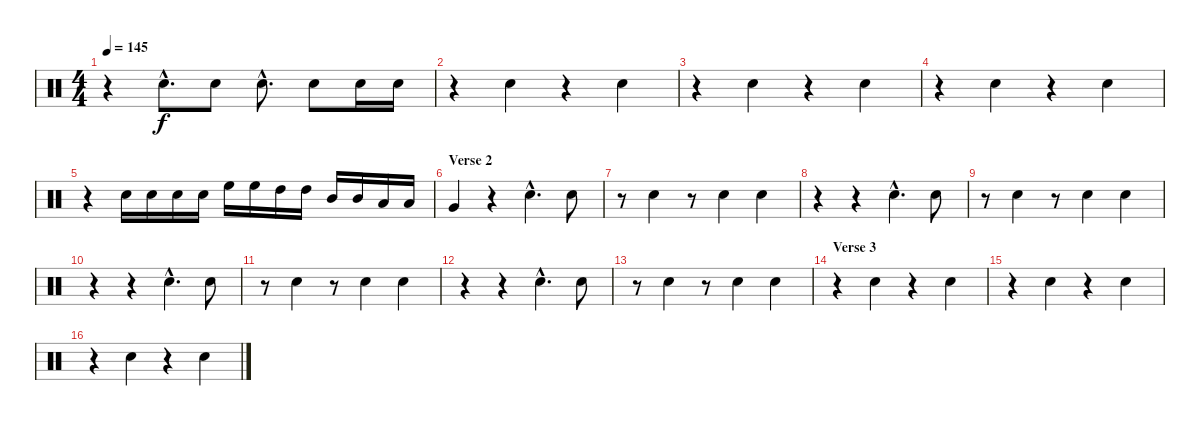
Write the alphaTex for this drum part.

\track "" {instrument percussion}
\staff {score}
\articulation defaults
\ts (4 4)
\tempo 145
\clef neutral
\ks c
r.4{dy f} "Electric Snare (hit)"{hac}.8{d} "Electric Snare (hit)".8 "Electric Snare (hit)"{hac}.8{d} "Electric Snare (hit)".8 "Electric Snare (hit)".16 "Electric Snare (hit)".16 |
r.4 "Electric Snare (hit)".4 r.4 "Electric Snare (hit)".4 |
r.4 "Electric Snare (hit)".4 r.4 "Electric Snare (hit)".4 |
r.4 "Electric Snare (hit)".4 r.4 "Electric Snare (hit)".4 |
r.4 "Electric Snare (hit)".16 "Electric Snare (hit)".16 "Electric Snare (hit)".16 "Electric Snare (hit)".16 "High Floor Tom (hit)".16 "High Floor Tom (hit)".16 "High Tom (hit)".16 "High Tom (hit)".16 "Mid Tom (hit)".16 "Mid Tom (hit)".16 "Low Tom (hit)".16 "Low Tom (hit)".16 |
\section ("" "Verse 2")
"Very Low Tom (hit)".4 r.4 "Electric Snare (hit)"{hac}.4{d} "Electric Snare (hit)".8 |
r.8 "Electric Snare (hit)".4 r.8 "Electric Snare (hit)".4 "Electric Snare (hit)".4 |
r.4 r.4 "Electric Snare (hit)"{hac}.4{d} "Electric Snare (hit)".8 |
r.8 "Electric Snare (hit)".4 r.8 "Electric Snare (hit)".4 "Electric Snare (hit)".4 |
r.4 r.4 "Electric Snare (hit)"{hac}.4{d} "Electric Snare (hit)".8 |
r.8 "Electric Snare (hit)".4 r.8 "Electric Snare (hit)".4 "Electric Snare (hit)".4 |
r.4 r.4 "Electric Snare (hit)"{hac}.4{d} "Electric Snare (hit)".8 |
r.8 "Electric Snare (hit)".4 r.8 "Electric Snare (hit)".4 "Electric Snare (hit)".4 |
\section ("" "Verse 3")
r.4 "Electric Snare (hit)".4 r.4 "Electric Snare (hit)".4 |
r.4 "Electric Snare (hit)".4 r.4 "Electric Snare (hit)".4 |
r.4 "Electric Snare (hit)".4 r.4 "Electric Snare (hit)".4
